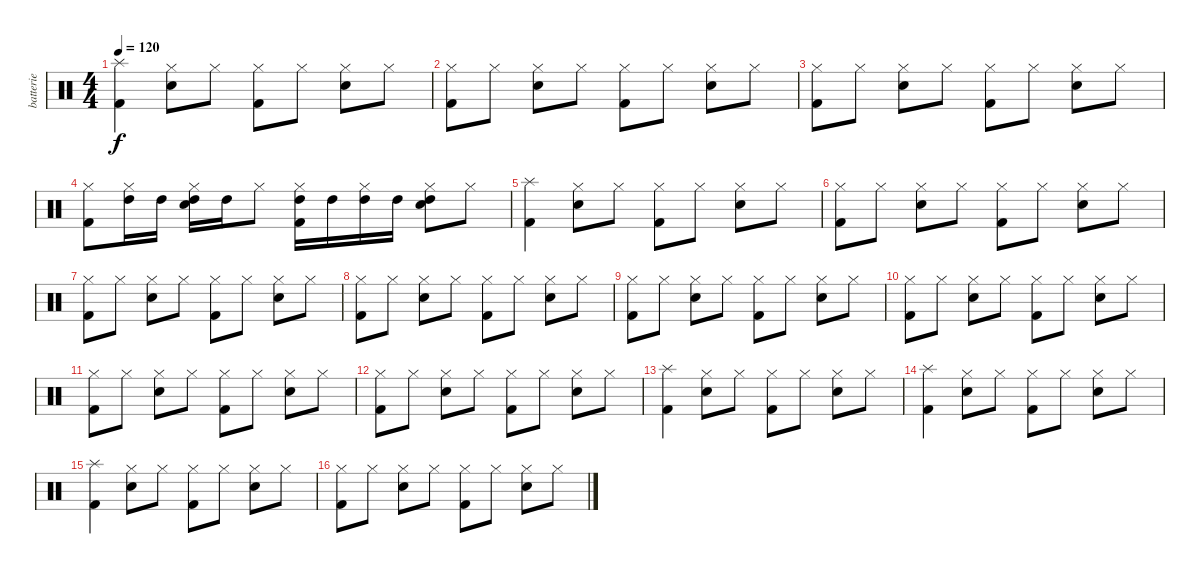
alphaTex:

\track ("batterie" "batterie") {instrument percussion}
\staff {score}
\articulation defaults
\ts (4 4)
\tempo 120
\clef neutral
\ks c
("Kick (hit) 2" "Splash (hit)").4{dy f} ("Snare (hit) 2" "Hi-Hat (closed)").8 "Hi-Hat (closed)".8 ("Kick (hit) 2" "Hi-Hat (closed)").8 "Hi-Hat (closed)".8 ("Snare (hit) 2" "Hi-Hat (closed)").8 "Hi-Hat (closed)".8 |
("Kick (hit) 2" "Hi-Hat (closed)").8 "Hi-Hat (closed)".8 ("Snare (hit) 2" "Hi-Hat (closed)").8 "Hi-Hat (closed)".8 ("Kick (hit) 2" "Hi-Hat (closed)").8 "Hi-Hat (closed)".8 ("Snare (hit) 2" "Hi-Hat (closed)").8 "Hi-Hat (closed)".8 |
("Kick (hit) 2" "Hi-Hat (closed)").8 "Hi-Hat (closed)".8 ("Snare (hit) 2" "Hi-Hat (closed)").8 "Hi-Hat (closed)".8 ("Kick (hit) 2" "Hi-Hat (closed)").8 "Hi-Hat (closed)".8 ("Snare (hit) 2" "Hi-Hat (closed)").8 "Hi-Hat (closed)".8 |
("Kick (hit) 2" "Hi-Hat (closed)").8 ("High Tom (hit)" "Hi-Hat (closed)").16 "High Tom (hit)".16 ("Snare (hit) 2" "High Tom (hit)" "Hi-Hat (closed)").16 "High Tom (hit)".16 "Hi-Hat (closed)".8 ("Kick (hit) 2" "High Tom (hit)" "Hi-Hat (closed)").16 "High Tom (hit)".16 ("High Tom (hit)" "Hi-Hat (closed)").16 "High Tom (hit)".16 ("Snare (hit) 2" "High Tom (hit)" "Hi-Hat (closed)").8 "Hi-Hat (closed)".8 |
("Kick (hit) 2" "Splash (hit)").4 ("Snare (hit) 2" "Hi-Hat (closed)").8 "Hi-Hat (closed)".8 ("Kick (hit) 2" "Hi-Hat (closed)").8 "Hi-Hat (closed)".8 ("Snare (hit) 2" "Hi-Hat (closed)").8 "Hi-Hat (closed)".8 |
("Kick (hit) 2" "Hi-Hat (closed)").8 "Hi-Hat (closed)".8 ("Snare (hit) 2" "Hi-Hat (closed)").8 "Hi-Hat (closed)".8 ("Kick (hit) 2" "Hi-Hat (closed)").8 "Hi-Hat (closed)".8 ("Snare (hit) 2" "Hi-Hat (closed)").8 "Hi-Hat (closed)".8 |
("Kick (hit) 2" "Hi-Hat (closed)").8 "Hi-Hat (closed)".8 ("Snare (hit) 2" "Hi-Hat (closed)").8 "Hi-Hat (closed)".8 ("Kick (hit) 2" "Hi-Hat (closed)").8 "Hi-Hat (closed)".8 ("Snare (hit) 2" "Hi-Hat (closed)").8 "Hi-Hat (closed)".8 |
("Kick (hit) 2" "Hi-Hat (closed)").8 "Hi-Hat (closed)".8 ("Snare (hit) 2" "Hi-Hat (closed)").8 "Hi-Hat (closed)".8 ("Kick (hit) 2" "Hi-Hat (closed)").8 "Hi-Hat (closed)".8 ("Snare (hit) 2" "Hi-Hat (closed)").8 "Hi-Hat (closed)".8 |
("Kick (hit) 2" "Hi-Hat (closed)").8 "Hi-Hat (closed)".8 ("Snare (hit) 2" "Hi-Hat (closed)").8 "Hi-Hat (closed)".8 ("Kick (hit) 2" "Hi-Hat (closed)").8 "Hi-Hat (closed)".8 ("Snare (hit) 2" "Hi-Hat (closed)").8 "Hi-Hat (closed)".8 |
("Kick (hit) 2" "Hi-Hat (closed)").8 "Hi-Hat (closed)".8 ("Snare (hit) 2" "Hi-Hat (closed)").8 "Hi-Hat (closed)".8 ("Kick (hit) 2" "Hi-Hat (closed)").8 "Hi-Hat (closed)".8 ("Snare (hit) 2" "Hi-Hat (closed)").8 "Hi-Hat (closed)".8 |
("Kick (hit) 2" "Hi-Hat (closed)").8 "Hi-Hat (closed)".8 ("Snare (hit) 2" "Hi-Hat (closed)").8 "Hi-Hat (closed)".8 ("Kick (hit) 2" "Hi-Hat (closed)").8 "Hi-Hat (closed)".8 ("Snare (hit) 2" "Hi-Hat (closed)").8 "Hi-Hat (closed)".8 |
("Kick (hit) 2" "Hi-Hat (closed)").8 "Hi-Hat (closed)".8 ("Snare (hit) 2" "Hi-Hat (closed)").8 "Hi-Hat (closed)".8 ("Kick (hit) 2" "Hi-Hat (closed)").8 "Hi-Hat (closed)".8 ("Snare (hit) 2" "Hi-Hat (closed)").8 "Hi-Hat (closed)".8 |
("Kick (hit) 2" "Splash (hit)").4 ("Snare (hit) 2" "Hi-Hat (closed)").8 "Hi-Hat (closed)".8 ("Kick (hit) 2" "Hi-Hat (closed)").8 "Hi-Hat (closed)".8 ("Snare (hit) 2" "Hi-Hat (closed)").8 "Hi-Hat (closed)".8 |
("Kick (hit) 2" "Splash (hit)").4 ("Snare (hit) 2" "Hi-Hat (closed)").8 "Hi-Hat (closed)".8 ("Kick (hit) 2" "Hi-Hat (closed)").8 "Hi-Hat (closed)".8 ("Snare (hit) 2" "Hi-Hat (closed)").8 "Hi-Hat (closed)".8 |
("Kick (hit) 2" "Splash (hit)").4 ("Snare (hit) 2" "Hi-Hat (closed)").8 "Hi-Hat (closed)".8 ("Kick (hit) 2" "Hi-Hat (closed)").8 "Hi-Hat (closed)".8 ("Snare (hit) 2" "Hi-Hat (closed)").8 "Hi-Hat (closed)".8 |
("Kick (hit) 2" "Hi-Hat (closed)").8 "Hi-Hat (closed)".8 ("Snare (hit) 2" "Hi-Hat (closed)").8 "Hi-Hat (closed)".8 ("Kick (hit) 2" "Hi-Hat (closed)").8 "Hi-Hat (closed)".8 ("Snare (hit) 2" "Hi-Hat (closed)").8 "Hi-Hat (closed)".8
